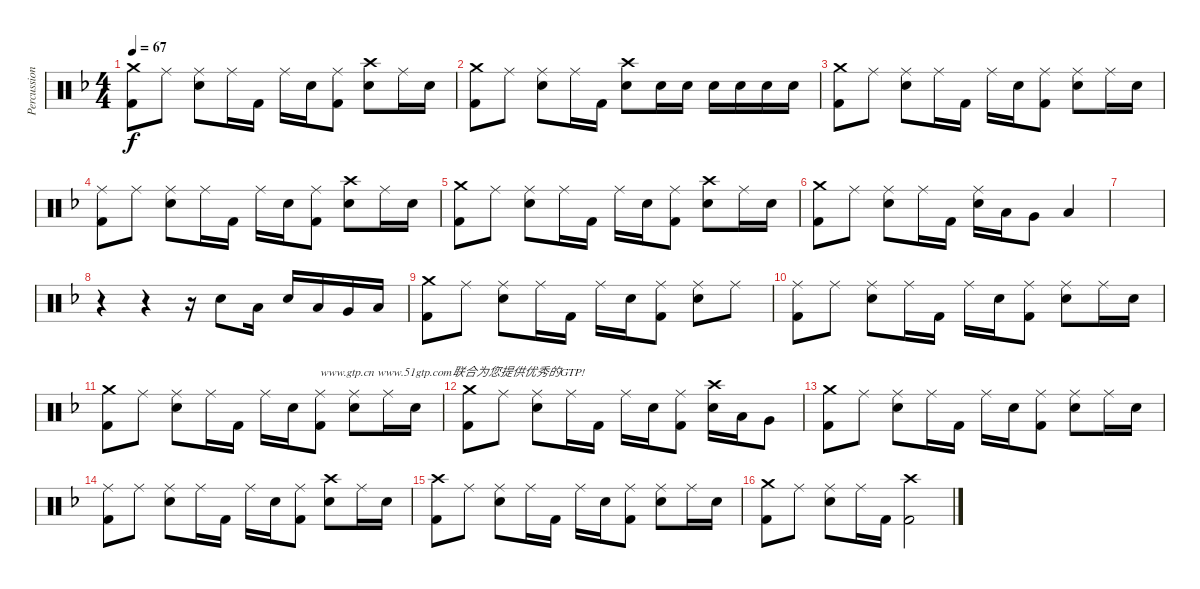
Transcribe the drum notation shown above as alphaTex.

\track ("Percussion" "Percussion") {instrument percussion}
\staff {score}
\articulation defaults
\ts (4 4)
\tempo 67
\clef neutral
\ks f
("Crash medium (hit)" "Kick (hit) 2").8{dy f} "Ride (middle)".8 ("Ride (middle)" "Snare (hit) 2").8 "Ride (middle)".16 "Kick (hit) 2".16 "Ride (middle)".16 "Electric Snare (hit)".16 ("Ride (middle)" "Kick (hit) 2").8 ("Crash high (hit)" "Electric Snare (hit)").8 "Ride (middle)".16 "Electric Snare (hit)".16 |
("Crash medium (hit)" "Kick (hit) 2").8 "Ride (middle)".8 ("Ride (middle)" "Snare (hit) 2").8 "Ride (middle)".16 "Kick (hit) 2".16 ("Crash high (hit)" "Electric Snare (hit)").8 "Electric Snare (hit)".16 "Electric Snare (hit)".16 "Electric Snare (hit)".16 "Electric Snare (hit)".16 "Electric Snare (hit)".16 "Electric Snare (hit)".16 |
("Crash medium (hit)" "Kick (hit) 2").8 "Ride (middle)".8 ("Ride (middle)" "Snare (hit) 2").8 "Ride (middle)".16 "Kick (hit) 2".16 "Ride (middle)".16 "Electric Snare (hit)".16 ("Ride (middle)" "Kick (hit) 2").8 ("Ride (middle)" "Electric Snare (hit)").8 "Ride (middle)".16 "Electric Snare (hit)".16 |
("Ride (middle)" "Kick (hit) 2").8 "Ride (middle)".8 ("Ride (middle)" "Snare (hit) 2").8 "Ride (middle)".16 "Kick (hit) 2".16 "Ride (middle)".16 "Electric Snare (hit)".16 ("Ride (middle)" "Kick (hit) 2").8 ("Crash high (hit)" "Electric Snare (hit)").8 "Ride (middle)".16 "Electric Snare (hit)".16 |
("Crash medium (hit)" "Kick (hit) 2").8 "Ride (middle)".8 ("Ride (middle)" "Snare (hit) 2").8 "Ride (middle)".16 "Kick (hit) 2".16 "Ride (middle)".16 "Electric Snare (hit)".16 ("Ride (middle)" "Kick (hit) 2").8 ("Crash high (hit)" "Electric Snare (hit)").8 "Ride (middle)".16 "Electric Snare (hit)".16 |
("Crash medium (hit)" "Kick (hit) 2").8 "Ride (middle)".8 ("Ride (middle)" "Snare (hit) 2").8 "Ride (middle)".16 "Kick (hit) 2".16 ("Ride (middle)" "Electric Snare (hit)").16 "Low Tom (hit)".16 "Very Low Tom (hit)".8 "Low Floor Tom (hit)".4 |
|
r.4 r.4 r.16 "Electric Snare (hit)".8 "Low Tom (hit)".16 "Electric Snare (hit)".16 "Low Tom (hit)".16 "Very Low Tom (hit)".16 "Low Floor Tom (hit)".16 |
("Crash medium (hit)" "Kick (hit) 2").8 "Ride (middle)".8 ("Ride (middle)" "Snare (hit) 2").8 "Ride (middle)".16 "Kick (hit) 2".16 "Ride (middle)".16 "Electric Snare (hit)".16 ("Ride (middle)" "Kick (hit) 2").8 ("Ride (middle)" "Electric Snare (hit)").8 "Ride (middle)".8 |
("Ride (middle)" "Kick (hit) 2").8 "Ride (middle)".8 ("Ride (middle)" "Snare (hit) 2").8 "Ride (middle)".16 "Kick (hit) 2".16 "Ride (middle)".16 "Electric Snare (hit)".16 ("Ride (middle)" "Kick (hit) 2").8 ("Ride (middle)" "Electric Snare (hit)").8 "Ride (middle)".16 "Electric Snare (hit)".16 |
("Crash medium (hit)" "Kick (hit) 2").8 "Ride (middle)".8 ("Ride (middle)" "Snare (hit) 2").8 "Ride (middle)".16 "Kick (hit) 2".16 "Ride (middle)".16 "Electric Snare (hit)".16 ("Ride (middle)" "Kick (hit) 2").8{txt "www.gtp.cn www.51gtp.com联合为您提供优秀的GTP!"} ("Ride (middle)" "Electric Snare (hit)").8 "Ride (middle)".16 "Electric Snare (hit)".16 |
("Crash medium (hit)" "Kick (hit) 2").8 "Ride (middle)".8 ("Ride (middle)" "Snare (hit) 2").8 "Ride (middle)".16 "Kick (hit) 2".16 "Ride (middle)".16 "Electric Snare (hit)".16 ("Ride (middle)" "Kick (hit) 2").8 ("Crash high (hit)" "Electric Snare (hit)").16 "Low Tom (hit)".16 "Very Low Tom (hit)".8 |
("Crash medium (hit)" "Kick (hit) 2").8 "Ride (middle)".8 ("Ride (middle)" "Snare (hit) 2").8 "Ride (middle)".16 "Kick (hit) 2".16 "Ride (middle)".16 "Electric Snare (hit)".16 ("Ride (middle)" "Kick (hit) 2").8 ("Ride (middle)" "Electric Snare (hit)").8 "Ride (middle)".16 "Electric Snare (hit)".16 |
("Ride (middle)" "Kick (hit) 2").8 "Ride (middle)".8 ("Ride (middle)" "Snare (hit) 2").8 "Ride (middle)".16 "Kick (hit) 2".16 "Ride (middle)".16 "Electric Snare (hit)".16 ("Ride (middle)" "Kick (hit) 2").8 ("Crash high (hit)" "Electric Snare (hit)").8 "Ride (middle)".16 "Electric Snare (hit)".16 |
("Crash high (hit)" "Kick (hit) 2").8 "Ride (middle)".8 ("Ride (middle)" "Snare (hit) 2").8 "Ride (middle)".16 "Kick (hit) 2".16 "Ride (middle)".16 "Electric Snare (hit)".16 ("Ride (middle)" "Kick (hit) 2").8 ("Ride (middle)" "Electric Snare (hit)").8 "Ride (middle)".16 "Electric Snare (hit)".16 |
("Crash medium (hit)" "Kick (hit) 2").8 "Ride (middle)".8 ("Ride (middle)" "Electric Snare (hit)").8 "Ride (middle)".16 "Kick (hit) 2".16 ("Crash high (hit)" "Kick (hit) 2").2
